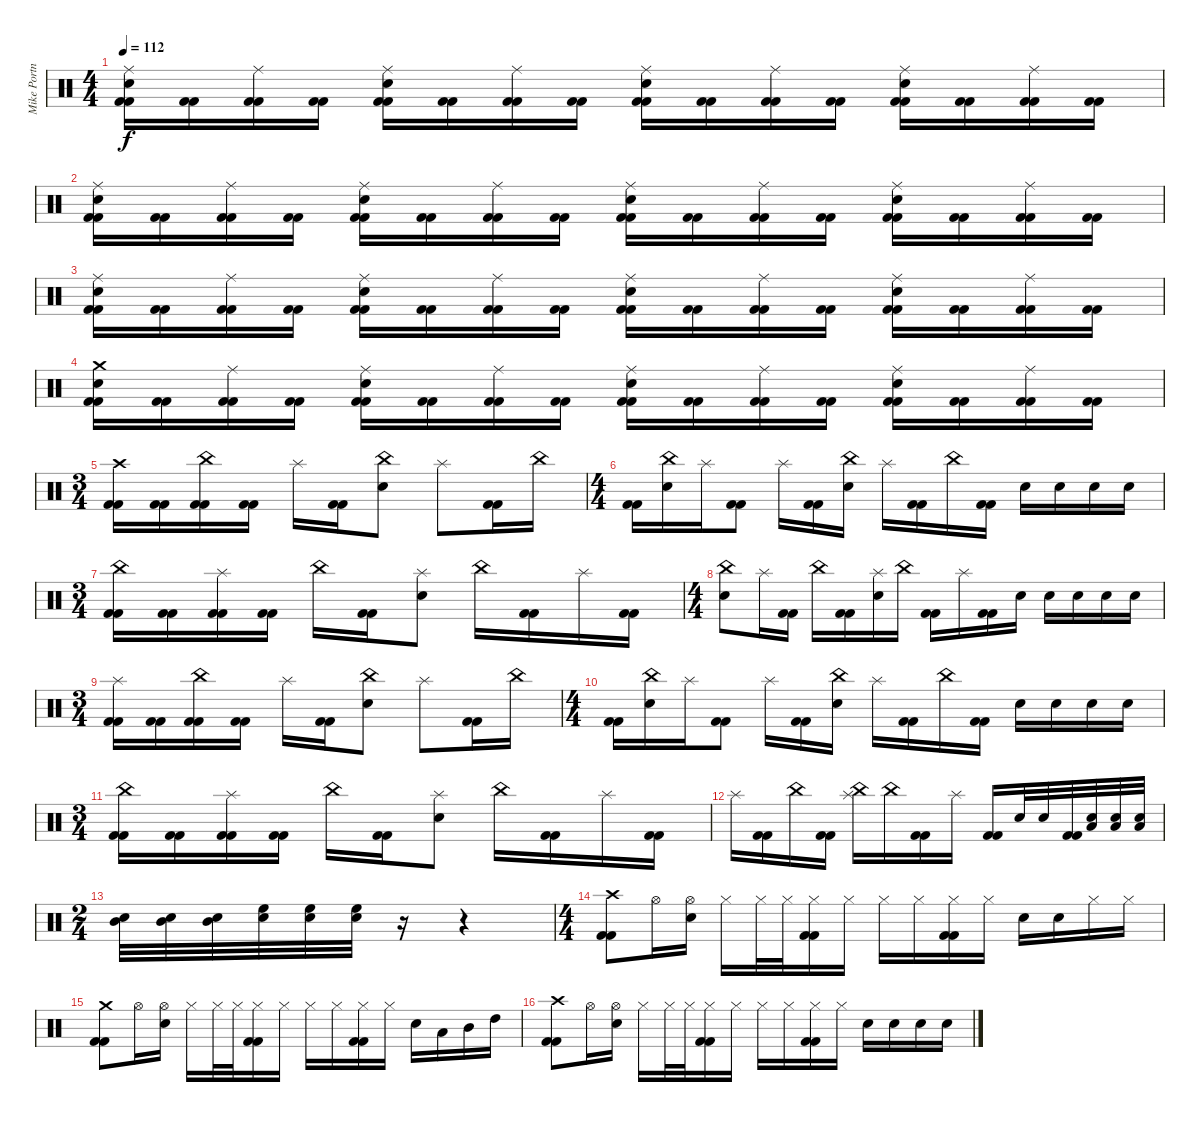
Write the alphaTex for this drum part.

\track ("Mike Portnoy - Drum" "Mike Portn") {instrument percussion}
\staff {score}
\articulation defaults
\ts (4 4)
\tempo 112
\clef neutral
\ks c
("Ride (middle)" "Snare (hit) 2" "Kick (hit) 2" "Kick (hit) 2").16{dy f} ("Kick (hit) 2" "Kick (hit) 2").16 ("Ride (middle)" "Kick (hit) 2" "Kick (hit) 2").16 ("Kick (hit) 2" "Kick (hit) 2").16 ("Ride (middle)" "Snare (hit) 2" "Kick (hit) 2" "Kick (hit) 2").16 ("Kick (hit) 2" "Kick (hit) 2").16 ("Ride (middle)" "Kick (hit) 2" "Kick (hit) 2").16 ("Kick (hit) 2" "Kick (hit) 2").16 ("Ride (middle)" "Snare (hit) 2" "Kick (hit) 2" "Kick (hit) 2").16 ("Kick (hit) 2" "Kick (hit) 2").16 ("Ride (middle)" "Kick (hit) 2" "Kick (hit) 2").16 ("Kick (hit) 2" "Kick (hit) 2").16 ("Ride (middle)" "Snare (hit) 2" "Kick (hit) 2" "Kick (hit) 2").16 ("Kick (hit) 2" "Kick (hit) 2").16 ("Ride (middle)" "Kick (hit) 2" "Kick (hit) 2").16 ("Kick (hit) 2" "Kick (hit) 2").16 |
("Ride (middle)" "Snare (hit) 2" "Kick (hit) 2" "Kick (hit) 2").16 ("Kick (hit) 2" "Kick (hit) 2").16 ("Ride (middle)" "Kick (hit) 2" "Kick (hit) 2").16 ("Kick (hit) 2" "Kick (hit) 2").16 ("Ride (middle)" "Snare (hit) 2" "Kick (hit) 2" "Kick (hit) 2").16 ("Kick (hit) 2" "Kick (hit) 2").16 ("Ride (middle)" "Kick (hit) 2" "Kick (hit) 2").16 ("Kick (hit) 2" "Kick (hit) 2").16 ("Ride (middle)" "Snare (hit) 2" "Kick (hit) 2" "Kick (hit) 2").16 ("Kick (hit) 2" "Kick (hit) 2").16 ("Ride (middle)" "Kick (hit) 2" "Kick (hit) 2").16 ("Kick (hit) 2" "Kick (hit) 2").16 ("Ride (middle)" "Snare (hit) 2" "Kick (hit) 2" "Kick (hit) 2").16 ("Kick (hit) 2" "Kick (hit) 2").16 ("Ride (middle)" "Kick (hit) 2" "Kick (hit) 2").16 ("Kick (hit) 2" "Kick (hit) 2").16 |
("Ride (middle)" "Snare (hit) 2" "Kick (hit) 2" "Kick (hit) 2").16 ("Kick (hit) 2" "Kick (hit) 2").16 ("Ride (middle)" "Kick (hit) 2" "Kick (hit) 2").16 ("Kick (hit) 2" "Kick (hit) 2").16 ("Ride (middle)" "Snare (hit) 2" "Kick (hit) 2" "Kick (hit) 2").16 ("Kick (hit) 2" "Kick (hit) 2").16 ("Ride (middle)" "Kick (hit) 2" "Kick (hit) 2").16 ("Kick (hit) 2" "Kick (hit) 2").16 ("Ride (middle)" "Snare (hit) 2" "Kick (hit) 2" "Kick (hit) 2").16 ("Kick (hit) 2" "Kick (hit) 2").16 ("Ride (middle)" "Kick (hit) 2" "Kick (hit) 2").16 ("Kick (hit) 2" "Kick (hit) 2").16 ("Ride (middle)" "Snare (hit) 2" "Kick (hit) 2" "Kick (hit) 2").16 ("Kick (hit) 2" "Kick (hit) 2").16 ("Ride (middle)" "Kick (hit) 2" "Kick (hit) 2").16 ("Kick (hit) 2" "Kick (hit) 2").16 |
("Crash medium (hit)" "Snare (hit) 2" "Kick (hit) 2" "Kick (hit) 2").16 ("Kick (hit) 2" "Kick (hit) 2").16 ("Ride (middle)" "Kick (hit) 2" "Kick (hit) 2").16 ("Kick (hit) 2" "Kick (hit) 2").16 ("Ride (middle)" "Snare (hit) 2" "Kick (hit) 2" "Kick (hit) 2").16 ("Kick (hit) 2" "Kick (hit) 2").16 ("Ride (middle)" "Kick (hit) 2" "Kick (hit) 2").16 ("Kick (hit) 2" "Kick (hit) 2").16 ("Ride (middle)" "Snare (hit) 2" "Kick (hit) 2" "Kick (hit) 2").16 ("Kick (hit) 2" "Kick (hit) 2").16 ("Ride (middle)" "Kick (hit) 2" "Kick (hit) 2").16 ("Kick (hit) 2" "Kick (hit) 2").16 ("Ride (middle)" "Snare (hit) 2" "Kick (hit) 2" "Kick (hit) 2").16 ("Kick (hit) 2" "Kick (hit) 2").16 ("Ride (middle)" "Kick (hit) 2" "Kick (hit) 2").16 ("Kick (hit) 2" "Kick (hit) 2").16 |
\ts (3 4)
("Crash high (hit)" "Kick (hit) 2" "Kick (hit) 2").16 ("Kick (hit) 2" "Kick (hit) 2").16 ("China (hit)" "Kick (hit) 2" "Kick (hit) 2").16 ("Kick (hit) 2" "Kick (hit) 2").16 "Splash (hit)".16 ("Kick (hit) 2" "Kick (hit) 2").16 ("China (hit)" "Snare (hit) 2").8 "Splash (hit)".8 ("Kick (hit) 2" "Kick (hit) 2").16 "China (hit)".16 |
\ts (4 4)
("Kick (hit) 2" "Kick (hit) 2").16 ("China (hit)" "Snare (hit) 2").16 "Splash (hit)".16 ("Kick (hit) 2" "Kick (hit) 2").8 "Splash (hit)".16 ("Kick (hit) 2" "Kick (hit) 2").16 ("China (hit)" "Snare (hit) 2").16 "Splash (hit)".16 ("Kick (hit) 2" "Kick (hit) 2").16 "China (hit)".16 ("Kick (hit) 2" "Kick (hit) 2").16 "Snare (hit) 2".16 "Snare (hit) 2".16 "Snare (hit) 2".16 "Snare (hit) 2".16 |
\ts (3 4)
("China (hit)" "Kick (hit) 2" "Kick (hit) 2").16 ("Kick (hit) 2" "Kick (hit) 2").16 ("Splash (hit)" "Kick (hit) 2" "Kick (hit) 2").16 ("Kick (hit) 2" "Kick (hit) 2").16 "China (hit)".16 ("Kick (hit) 2" "Kick (hit) 2").16 ("Splash (hit)" "Snare (hit) 2").8 "China (hit)".16 ("Kick (hit) 2" "Kick (hit) 2").16 "Splash (hit)".16 ("Kick (hit) 2" "Kick (hit) 2").16 |
\ts (4 4)
("China (hit)" "Snare (hit) 2").8 "Splash (hit)".16 ("Kick (hit) 2" "Kick (hit) 2").16 "China (hit)".16 ("Kick (hit) 2" "Kick (hit) 2").16 ("Splash (hit)" "Snare (hit) 2").16 "China (hit)".16 ("Kick (hit) 2" "Kick (hit) 2").16 "Splash (hit)".16 ("Kick (hit) 2" "Kick (hit) 2").16 "Snare (hit) 2".16 "Snare (hit) 2".16 "Snare (hit) 2".16 "Snare (hit) 2".16 "Snare (hit) 2".16 |
\ts (3 4)
("Splash (hit)" "Kick (hit) 2" "Kick (hit) 2").16 ("Kick (hit) 2" "Kick (hit) 2").16 ("China (hit)" "Kick (hit) 2" "Kick (hit) 2").16 ("Kick (hit) 2" "Kick (hit) 2").16 "Splash (hit)".16 ("Kick (hit) 2" "Kick (hit) 2").16 ("China (hit)" "Snare (hit) 2").8 "Splash (hit)".8 ("Kick (hit) 2" "Kick (hit) 2").16 "China (hit)".16 |
\ts (4 4)
("Kick (hit) 2" "Kick (hit) 2").16 ("China (hit)" "Snare (hit) 2").16 "Splash (hit)".16 ("Kick (hit) 2" "Kick (hit) 2").8 "Splash (hit)".16 ("Kick (hit) 2" "Kick (hit) 2").16 ("China (hit)" "Snare (hit) 2").16 "Splash (hit)".16 ("Kick (hit) 2" "Kick (hit) 2").16 "China (hit)".16 ("Kick (hit) 2" "Kick (hit) 2").16 "Snare (hit) 2".16 "Snare (hit) 2".16 "Snare (hit) 2".16 "Snare (hit) 2".16 |
\ts (3 4)
("China (hit)" "Kick (hit) 2" "Kick (hit) 2").16 ("Kick (hit) 2" "Kick (hit) 2").16 ("Splash (hit)" "Kick (hit) 2" "Kick (hit) 2").16 ("Kick (hit) 2" "Kick (hit) 2").16 "China (hit)".16 ("Kick (hit) 2" "Kick (hit) 2").16 ("Splash (hit)" "Snare (hit) 2").8 "China (hit)".16 ("Kick (hit) 2" "Kick (hit) 2").16 "Splash (hit)".16 ("Kick (hit) 2" "Kick (hit) 2").16 |
"Splash (hit)".16 ("Kick (hit) 2" "Kick (hit) 2").16 "China (hit)".16 ("Kick (hit) 2" "Kick (hit) 2").16 ("Splash (hit)" "China (hit)").16 "China (hit)".16 ("Kick (hit) 2" "Kick (hit) 2").16 "Splash (hit)".16 ("Kick (hit) 2" "Kick (hit) 2").16 "Snare (hit) 2".32 "Snare (hit) 2".32 ("Kick (hit) 2" "Kick (hit) 2").32 ("Low Tom (hit)" "Snare (hit) 2").32 ("Low Tom (hit)" "Snare (hit) 2").32 ("Low Tom (hit)" "Snare (hit) 2").32 |
\ts (2 4)
("Snare (hit) 2" "Mid Tom (hit)").32 ("Snare (hit) 2" "Mid Tom (hit)").32 ("Snare (hit) 2" "Mid Tom (hit)").32 ("Snare (hit) 2" "High Floor Tom (hit)").32 ("Snare (hit) 2" "High Floor Tom (hit)").32 ("Snare (hit) 2" "High Floor Tom (hit)").32 r.16 r.4 |
\ts (4 4)
("Crash high (hit)" "Kick (hit) 2" "Kick (hit) 2").8 "Hi-Hat (open)".16 ("Hi-Hat (open)" "Snare (hit) 2").16 "Hi-Hat (closed)".16 "Hi-Hat (closed)".32 "Hi-Hat (closed)".32 ("Hi-Hat (closed)" "Kick (hit) 2" "Kick (hit) 2").16 "Hi-Hat (closed)".16 "Hi-Hat (closed)".16 "Hi-Hat (closed)".16 ("Hi-Hat (closed)" "Kick (hit) 2" "Kick (hit) 2").16 "Hi-Hat (closed)".16 "Snare (hit) 2".16 "Snare (hit) 2".16 "Hi-Hat (closed)".16 "Hi-Hat (closed)".16 |
("Crash medium (hit)" "Kick (hit) 2" "Kick (hit) 2").8 "Hi-Hat (open)".16 ("Hi-Hat (open)" "Snare (hit) 2").16 "Hi-Hat (closed)".16 "Hi-Hat (closed)".32 "Hi-Hat (closed)".32 ("Hi-Hat (closed)" "Kick (hit) 2" "Kick (hit) 2").16 "Hi-Hat (closed)".16 "Hi-Hat (closed)".16 "Hi-Hat (closed)".16 ("Hi-Hat (closed)" "Kick (hit) 2" "Kick (hit) 2").16 "Hi-Hat (closed)".16 "Snare (hit) 2".16 "Low Tom (hit)".16 "Mid Tom (hit)".16 "High Tom (hit)".16 |
("Crash high (hit)" "Kick (hit) 2" "Kick (hit) 2").8 "Hi-Hat (open)".16 ("Hi-Hat (open)" "Snare (hit) 2").16 "Hi-Hat (closed)".16 "Hi-Hat (closed)".32 "Hi-Hat (closed)".32 ("Hi-Hat (closed)" "Kick (hit) 2" "Kick (hit) 2").16 "Hi-Hat (closed)".16 "Hi-Hat (closed)".16 "Hi-Hat (closed)".16 ("Hi-Hat (closed)" "Kick (hit) 2" "Kick (hit) 2").16 "Hi-Hat (closed)".16 "Snare (hit) 2".16 "Snare (hit) 2".16 "Snare (hit) 2".16 "Snare (hit) 2".16
